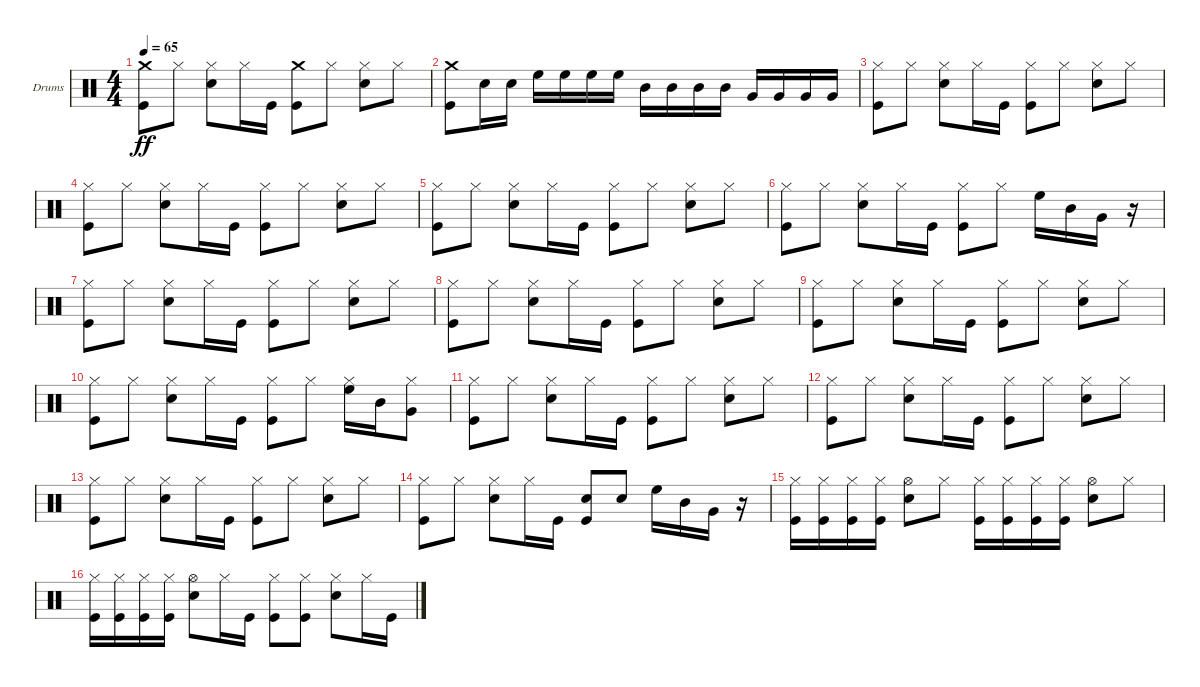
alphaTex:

\bracketExtendMode groupsimilarinstruments
\firstSystemTrackNameOrientation horizontal
\otherSystemsTrackNameOrientation horizontal
\track ("Drumkit" "Drums") {instrument percussion}
\staff {score}
\articulation defaults
\ts (4 4)
\tempo 65
\clef neutral
\scale
0.333333
\ks c
("Crash medium (hit)" "Kick (hit)").8{dy ff} "Hi-Hat (closed)".8 ("Snare (hit) 2" "Hi-Hat (closed)").8 "Hi-Hat (closed)".16 "Kick (hit)".16 ("Crash medium (hit)" "Kick (hit)").8 "Hi-Hat (closed)".8 ("Hi-Hat (closed)" "Snare (hit) 2").8 "Hi-Hat (closed)".8 |
\scale
0.333333 ("Crash medium (hit)" "Kick (hit)").8 "Snare (hit) 2".16 "Snare (hit) 2".16 "High Floor Tom (hit)".16 "High Floor Tom (hit)".16 "High Floor Tom (hit)".16 "High Floor Tom (hit)".16 "Mid Tom (hit)".16 "Mid Tom (hit)".16 "Mid Tom (hit)".16 "Mid Tom (hit)".16 "Very Low Tom (hit)".16 "Very Low Tom (hit)".16 "Very Low Tom (hit)".16 "Very Low Tom (hit)".16 |
\scale
0.333333 ("Hi-Hat (closed)" "Kick (hit)").8 "Hi-Hat (closed)".8 ("Snare (hit) 2" "Hi-Hat (closed)").8 "Hi-Hat (closed)".16 "Kick (hit)".16 ("Hi-Hat (closed)" "Kick (hit)").8 "Hi-Hat (closed)".8 ("Hi-Hat (closed)" "Snare (hit) 2").8 "Hi-Hat (closed)".8 |
\scale
0.333333 ("Hi-Hat (closed)" "Kick (hit)").8 "Hi-Hat (closed)".8 ("Snare (hit) 2" "Hi-Hat (closed)").8 "Hi-Hat (closed)".16 "Kick (hit)".16 ("Hi-Hat (closed)" "Kick (hit)").8 "Hi-Hat (closed)".8 ("Hi-Hat (closed)" "Snare (hit) 2").8 "Hi-Hat (closed)".8 |
\scale
0.333333 ("Hi-Hat (closed)" "Kick (hit)").8 "Hi-Hat (closed)".8 ("Snare (hit) 2" "Hi-Hat (closed)").8 "Hi-Hat (closed)".16 "Kick (hit)".16 ("Hi-Hat (closed)" "Kick (hit)").8 "Hi-Hat (closed)".8 ("Hi-Hat (closed)" "Snare (hit) 2").8 "Hi-Hat (closed)".8 |
\scale
0.333333 ("Hi-Hat (closed)" "Kick (hit)").8 "Hi-Hat (closed)".8 ("Snare (hit) 2" "Hi-Hat (closed)").8 "Hi-Hat (closed)".16 "Kick (hit)".16 ("Hi-Hat (closed)" "Kick (hit)").8 "Hi-Hat (closed)".8 "High Floor Tom (hit)".16 "Mid Tom (hit)".16 "Very Low Tom (hit)".16 r.16 |
\scale
0.333333 ("Hi-Hat (closed)" "Kick (hit)").8 "Hi-Hat (closed)".8 ("Snare (hit) 2" "Hi-Hat (closed)").8 "Hi-Hat (closed)".16 "Kick (hit)".16 ("Hi-Hat (closed)" "Kick (hit)").8 "Hi-Hat (closed)".8 ("Hi-Hat (closed)" "Snare (hit) 2").8 "Hi-Hat (closed)".8 |
\scale
0.333333 ("Hi-Hat (closed)" "Kick (hit)").8 "Hi-Hat (closed)".8 ("Snare (hit) 2" "Hi-Hat (closed)").8 "Hi-Hat (closed)".16 "Kick (hit)".16 ("Hi-Hat (closed)" "Kick (hit)").8 "Hi-Hat (closed)".8 ("Hi-Hat (closed)" "Snare (hit) 2").8 "Hi-Hat (closed)".8 |
\scale
0.333333 ("Hi-Hat (closed)" "Kick (hit)").8 "Hi-Hat (closed)".8 ("Snare (hit) 2" "Hi-Hat (closed)").8 "Hi-Hat (closed)".16 "Kick (hit)".16 ("Hi-Hat (closed)" "Kick (hit)").8 "Hi-Hat (closed)".8 ("Hi-Hat (closed)" "Snare (hit) 2").8 "Hi-Hat (closed)".8 |
\scale
0.333333 ("Hi-Hat (closed)" "Kick (hit)").8 "Hi-Hat (closed)".8 ("Snare (hit) 2" "Hi-Hat (closed)").8 "Hi-Hat (closed)".16 "Kick (hit)".16 ("Hi-Hat (closed)" "Kick (hit)").8 "Hi-Hat (closed)".8 ("High Floor Tom (hit)" "Hi-Hat (closed)").16 "Mid Tom (hit)".16 ("Very Low Tom (hit)" "Hi-Hat (closed)").8 |
\scale
0.333333 ("Hi-Hat (closed)" "Kick (hit)").8 "Hi-Hat (closed)".8 ("Snare (hit) 2" "Hi-Hat (closed)").8 "Hi-Hat (closed)".16 "Kick (hit)".16 ("Hi-Hat (closed)" "Kick (hit)").8 "Hi-Hat (closed)".8 ("Hi-Hat (closed)" "Snare (hit) 2").8 "Hi-Hat (closed)".8 |
\scale
0.333333 ("Hi-Hat (closed)" "Kick (hit)").8 "Hi-Hat (closed)".8 ("Snare (hit) 2" "Hi-Hat (closed)").8 "Hi-Hat (closed)".16 "Kick (hit)".16 ("Hi-Hat (closed)" "Kick (hit)").8 "Hi-Hat (closed)".8 ("Hi-Hat (closed)" "Snare (hit) 2").8 "Hi-Hat (closed)".8 |
\scale
0.333333 ("Hi-Hat (closed)" "Kick (hit)").8 "Hi-Hat (closed)".8 ("Snare (hit) 2" "Hi-Hat (closed)").8 "Hi-Hat (closed)".16 "Kick (hit)".16 ("Hi-Hat (closed)" "Kick (hit)").8 "Hi-Hat (closed)".8 ("Hi-Hat (closed)" "Snare (hit) 2").8 "Hi-Hat (closed)".8 |
\scale
0.333333 ("Hi-Hat (closed)" "Kick (hit)").8 "Hi-Hat (closed)".8 ("Snare (hit) 2" "Hi-Hat (closed)").8 "Hi-Hat (closed)".16 "Kick (hit)".16 ("Snare (hit) 2" "Kick (hit)").8 "Snare (hit) 2".8 "High Floor Tom (hit)".16 "Mid Tom (hit)".16 "Very Low Tom (hit)".16 r.16 |
\scale
0.333333 ("Kick (hit)" "Hi-Hat (closed)").16 ("Kick (hit)" "Hi-Hat (closed)").16 ("Kick (hit)" "Hi-Hat (closed)").16 ("Kick (hit)" "Hi-Hat (closed)").16 ("Hi-Hat (open)" "Snare (hit) 2").8 "Hi-Hat (closed)".8 ("Kick (hit)" "Hi-Hat (closed)").16 ("Kick (hit)" "Hi-Hat (closed)").16 ("Kick (hit)" "Hi-Hat (closed)").16 ("Kick (hit)" "Hi-Hat (closed)").16 ("Hi-Hat (open)" "Snare (hit) 2").8 "Hi-Hat (closed)".8 |
\scale
0.333333 ("Kick (hit)" "Hi-Hat (closed)").16 ("Kick (hit)" "Hi-Hat (closed)").16 ("Kick (hit)" "Hi-Hat (closed)").16 ("Kick (hit)" "Hi-Hat (closed)").16 ("Hi-Hat (open)" "Snare (hit) 2").8 "Hi-Hat (closed)".16 "Kick (hit)".16 ("Hi-Hat (closed)" "Kick (hit)").8 ("Hi-Hat (closed)" "Kick (hit)").8 ("Snare (hit) 2" "Hi-Hat (closed)").8 "Hi-Hat (closed)".16 "Kick (hit)".16
